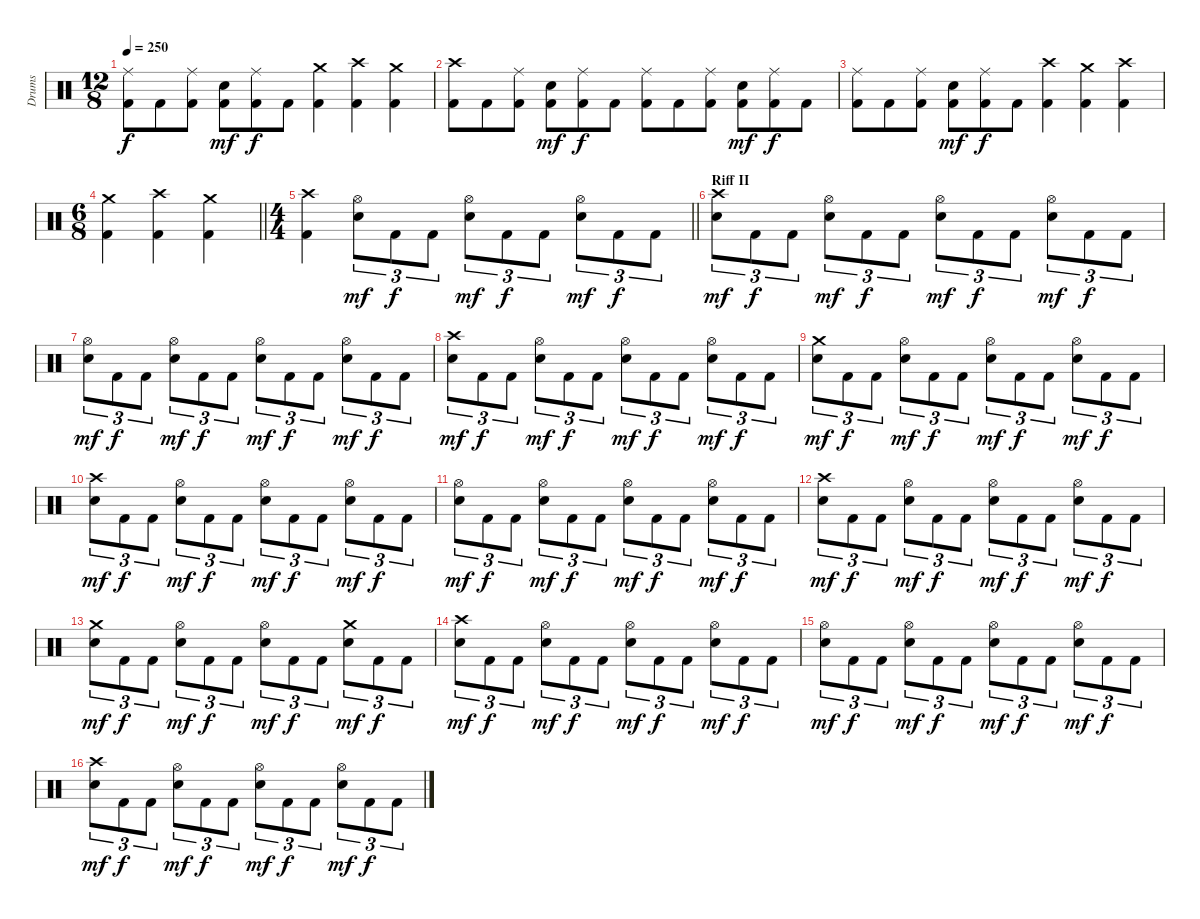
\track ("Drums" "Drums") {instrument percussion}
\staff {score}
\articulation defaults
\ts (12 8)
\tempo 250
\clef neutral
\ks c
("Ride (middle)" "Kick (hit) 2").8{dy f} "Kick (hit) 2".8 ("Ride (middle)" "Kick (hit) 2").8 ("Electric Snare (hit)" "Kick (hit) 2").8{dy mf} ("Ride (middle)" "Kick (hit) 2").8{dy f} "Kick (hit) 2".8 ("Crash medium (hit)" "Kick (hit) 2").4 ("Crash high (hit)" "Kick (hit) 2").4 ("Crash medium (hit)" "Kick (hit) 2").4 |
("Crash high (hit)" "Kick (hit) 2").8 "Kick (hit) 2".8 ("Ride (middle)" "Kick (hit) 2").8 ("Electric Snare (hit)" "Kick (hit) 2").8{dy mf} ("Ride (middle)" "Kick (hit) 2").8{dy f} "Kick (hit) 2".8 ("Ride (middle)" "Kick (hit) 2").8 "Kick (hit) 2".8 ("Ride (middle)" "Kick (hit) 2").8 ("Electric Snare (hit)" "Kick (hit) 2").8{dy mf} ("Ride (middle)" "Kick (hit) 2").8{dy f} "Kick (hit) 2".8 |
("Ride (middle)" "Kick (hit) 2").8 "Kick (hit) 2".8 ("Ride (middle)" "Kick (hit) 2").8 ("Electric Snare (hit)" "Kick (hit) 2").8{dy mf} ("Ride (middle)" "Kick (hit) 2").8{dy f} "Kick (hit) 2".8 ("Crash high (hit)" "Kick (hit) 2").4 ("Crash medium (hit)" "Kick (hit) 2").4 ("Crash high (hit)" "Kick (hit) 2").4 |
\ts (6 8)
\barLineRight lightlight
("Crash medium (hit)" "Kick (hit) 2").4 ("Crash high (hit)" "Kick (hit) 2").4 ("Crash medium (hit)" "Kick (hit) 2").4 |
\ts (4 4)
\section ("" "")
\barLineRight lightlight
("Crash high (hit)" "Kick (hit) 2").4 ("Hi-Hat (open)" "Electric Snare (hit)").8{tu (3 2) dy mf} "Kick (hit) 2".8{tu (3 2) dy f} "Kick (hit) 2".8{tu (3 2)} ("Hi-Hat (open)" "Electric Snare (hit)").8{tu (3 2) dy mf} "Kick (hit) 2".8{tu (3 2) dy f} "Kick (hit) 2".8{tu (3 2)} ("Hi-Hat (open)" "Electric Snare (hit)").8{tu (3 2) dy mf} "Kick (hit) 2".8{tu (3 2) dy f} "Kick (hit) 2".8{tu (3 2)} |
\section ("" "Riff II")
("Crash high (hit)" "Electric Snare (hit)").8{tu (3 2) dy mf} "Kick (hit) 2".8{tu (3 2) dy f} "Kick (hit) 2".8{tu (3 2)} ("Hi-Hat (open)" "Electric Snare (hit)").8{tu (3 2) dy mf} "Kick (hit) 2".8{tu (3 2) dy f} "Kick (hit) 2".8{tu (3 2)} ("Hi-Hat (open)" "Electric Snare (hit)").8{tu (3 2) dy mf} "Kick (hit) 2".8{tu (3 2) dy f} "Kick (hit) 2".8{tu (3 2)} ("Hi-Hat (open)" "Electric Snare (hit)").8{tu (3 2) dy mf} "Kick (hit) 2".8{tu (3 2) dy f} "Kick (hit) 2".8{tu (3 2)} |
("Hi-Hat (open)" "Electric Snare (hit)").8{tu (3 2) dy mf} "Kick (hit) 2".8{tu (3 2) dy f} "Kick (hit) 2".8{tu (3 2)} ("Hi-Hat (open)" "Electric Snare (hit)").8{tu (3 2) dy mf} "Kick (hit) 2".8{tu (3 2) dy f} "Kick (hit) 2".8{tu (3 2)} ("Hi-Hat (open)" "Electric Snare (hit)").8{tu (3 2) dy mf} "Kick (hit) 2".8{tu (3 2) dy f} "Kick (hit) 2".8{tu (3 2)} ("Hi-Hat (open)" "Electric Snare (hit)").8{tu (3 2) dy mf} "Kick (hit) 2".8{tu (3 2) dy f} "Kick (hit) 2".8{tu (3 2)} |
("Crash high (hit)" "Electric Snare (hit)").8{tu (3 2) dy mf} "Kick (hit) 2".8{tu (3 2) dy f} "Kick (hit) 2".8{tu (3 2)} ("Hi-Hat (open)" "Electric Snare (hit)").8{tu (3 2) dy mf} "Kick (hit) 2".8{tu (3 2) dy f} "Kick (hit) 2".8{tu (3 2)} ("Hi-Hat (open)" "Electric Snare (hit)").8{tu (3 2) dy mf} "Kick (hit) 2".8{tu (3 2) dy f} "Kick (hit) 2".8{tu (3 2)} ("Hi-Hat (open)" "Electric Snare (hit)").8{tu (3 2) dy mf} "Kick (hit) 2".8{tu (3 2) dy f} "Kick (hit) 2".8{tu (3 2)} |
("Crash medium (hit)" "Electric Snare (hit)").8{tu (3 2) dy mf} "Kick (hit) 2".8{tu (3 2) dy f} "Kick (hit) 2".8{tu (3 2)} ("Hi-Hat (open)" "Electric Snare (hit)").8{tu (3 2) dy mf} "Kick (hit) 2".8{tu (3 2) dy f} "Kick (hit) 2".8{tu (3 2)} ("Hi-Hat (open)" "Electric Snare (hit)").8{tu (3 2) dy mf} "Kick (hit) 2".8{tu (3 2) dy f} "Kick (hit) 2".8{tu (3 2)} ("Hi-Hat (open)" "Electric Snare (hit)").8{tu (3 2) dy mf} "Kick (hit) 2".8{tu (3 2) dy f} "Kick (hit) 2".8{tu (3 2)} |
("Crash high (hit)" "Electric Snare (hit)").8{tu (3 2) dy mf} "Kick (hit) 2".8{tu (3 2) dy f} "Kick (hit) 2".8{tu (3 2)} ("Hi-Hat (open)" "Electric Snare (hit)").8{tu (3 2) dy mf} "Kick (hit) 2".8{tu (3 2) dy f} "Kick (hit) 2".8{tu (3 2)} ("Hi-Hat (open)" "Electric Snare (hit)").8{tu (3 2) dy mf} "Kick (hit) 2".8{tu (3 2) dy f} "Kick (hit) 2".8{tu (3 2)} ("Hi-Hat (open)" "Electric Snare (hit)").8{tu (3 2) dy mf} "Kick (hit) 2".8{tu (3 2) dy f} "Kick (hit) 2".8{tu (3 2)} |
("Hi-Hat (open)" "Electric Snare (hit)").8{tu (3 2) dy mf} "Kick (hit) 2".8{tu (3 2) dy f} "Kick (hit) 2".8{tu (3 2)} ("Hi-Hat (open)" "Electric Snare (hit)").8{tu (3 2) dy mf} "Kick (hit) 2".8{tu (3 2) dy f} "Kick (hit) 2".8{tu (3 2)} ("Hi-Hat (open)" "Electric Snare (hit)").8{tu (3 2) dy mf} "Kick (hit) 2".8{tu (3 2) dy f} "Kick (hit) 2".8{tu (3 2)} ("Hi-Hat (open)" "Electric Snare (hit)").8{tu (3 2) dy mf} "Kick (hit) 2".8{tu (3 2) dy f} "Kick (hit) 2".8{tu (3 2)} |
("Crash high (hit)" "Electric Snare (hit)").8{tu (3 2) dy mf} "Kick (hit) 2".8{tu (3 2) dy f} "Kick (hit) 2".8{tu (3 2)} ("Hi-Hat (open)" "Electric Snare (hit)").8{tu (3 2) dy mf} "Kick (hit) 2".8{tu (3 2) dy f} "Kick (hit) 2".8{tu (3 2)} ("Hi-Hat (open)" "Electric Snare (hit)").8{tu (3 2) dy mf} "Kick (hit) 2".8{tu (3 2) dy f} "Kick (hit) 2".8{tu (3 2)} ("Hi-Hat (open)" "Electric Snare (hit)").8{tu (3 2) dy mf} "Kick (hit) 2".8{tu (3 2) dy f} "Kick (hit) 2".8{tu (3 2)} |
("Crash medium (hit)" "Electric Snare (hit)").8{tu (3 2) dy mf} "Kick (hit) 2".8{tu (3 2) dy f} "Kick (hit) 2".8{tu (3 2)} ("Hi-Hat (open)" "Electric Snare (hit)").8{tu (3 2) dy mf} "Kick (hit) 2".8{tu (3 2) dy f} "Kick (hit) 2".8{tu (3 2)} ("Hi-Hat (open)" "Electric Snare (hit)").8{tu (3 2) dy mf} "Kick (hit) 2".8{tu (3 2) dy f} "Kick (hit) 2".8{tu (3 2)} ("Crash medium (hit)" "Electric Snare (hit)").8{tu (3 2) dy mf} "Kick (hit) 2".8{tu (3 2) dy f} "Kick (hit) 2".8{tu (3 2)} |
("Crash high (hit)" "Electric Snare (hit)").8{tu (3 2) dy mf} "Kick (hit) 2".8{tu (3 2) dy f} "Kick (hit) 2".8{tu (3 2)} ("Hi-Hat (open)" "Electric Snare (hit)").8{tu (3 2) dy mf} "Kick (hit) 2".8{tu (3 2) dy f} "Kick (hit) 2".8{tu (3 2)} ("Hi-Hat (open)" "Electric Snare (hit)").8{tu (3 2) dy mf} "Kick (hit) 2".8{tu (3 2) dy f} "Kick (hit) 2".8{tu (3 2)} ("Hi-Hat (open)" "Electric Snare (hit)").8{tu (3 2) dy mf} "Kick (hit) 2".8{tu (3 2) dy f} "Kick (hit) 2".8{tu (3 2)} |
("Hi-Hat (open)" "Electric Snare (hit)").8{tu (3 2) dy mf} "Kick (hit) 2".8{tu (3 2) dy f} "Kick (hit) 2".8{tu (3 2)} ("Hi-Hat (open)" "Electric Snare (hit)").8{tu (3 2) dy mf} "Kick (hit) 2".8{tu (3 2) dy f} "Kick (hit) 2".8{tu (3 2)} ("Hi-Hat (open)" "Electric Snare (hit)").8{tu (3 2) dy mf} "Kick (hit) 2".8{tu (3 2) dy f} "Kick (hit) 2".8{tu (3 2)} ("Hi-Hat (open)" "Electric Snare (hit)").8{tu (3 2) dy mf} "Kick (hit) 2".8{tu (3 2) dy f} "Kick (hit) 2".8{tu (3 2)} |
("Crash high (hit)" "Electric Snare (hit)").8{tu (3 2) dy mf} "Kick (hit) 2".8{tu (3 2) dy f} "Kick (hit) 2".8{tu (3 2)} ("Hi-Hat (open)" "Electric Snare (hit)").8{tu (3 2) dy mf} "Kick (hit) 2".8{tu (3 2) dy f} "Kick (hit) 2".8{tu (3 2)} ("Hi-Hat (open)" "Electric Snare (hit)").8{tu (3 2) dy mf} "Kick (hit) 2".8{tu (3 2) dy f} "Kick (hit) 2".8{tu (3 2)} ("Hi-Hat (open)" "Electric Snare (hit)").8{tu (3 2) dy mf} "Kick (hit) 2".8{tu (3 2) dy f} "Kick (hit) 2".8{tu (3 2)}
